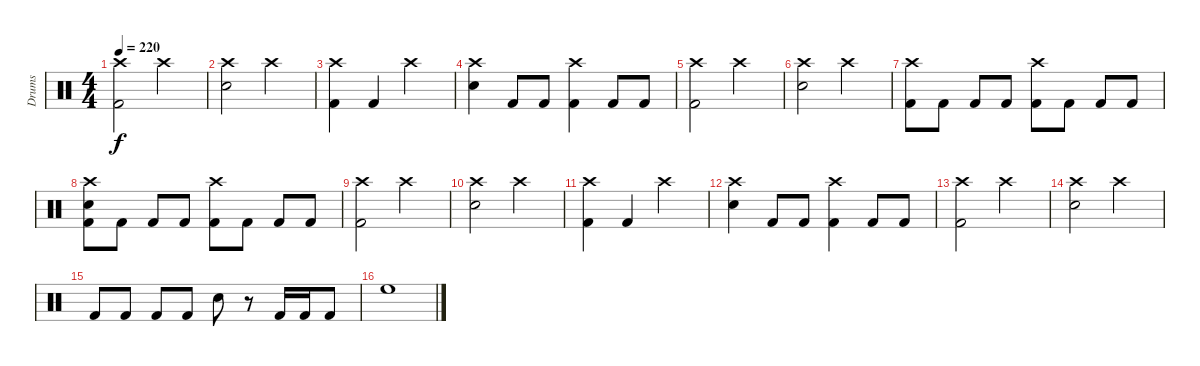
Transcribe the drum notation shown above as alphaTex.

\track ("Drums" "Drums") {instrument percussion}
\staff {score}
\articulation defaults
\ts (4 4)
\tempo 220
\clef neutral
\ks c
("Crash high (hit)" "Kick (hit) 2").2{dy f} "Crash high (hit)".2 |
("Crash high (hit)" "Electric Snare (hit)").2 "Crash high (hit)".2 |
("Crash high (hit)" "Kick (hit) 2").4 "Kick (hit) 2".4 "Crash high (hit)".2 |
("Crash high (hit)" "Electric Snare (hit)").4 "Kick (hit) 2".8 "Kick (hit) 2".8 ("Crash high (hit)" "Kick (hit) 2").4 "Kick (hit) 2".8 "Kick (hit) 2".8 |
("Crash high (hit)" "Kick (hit) 2").2 "Crash high (hit)".2 |
("Crash high (hit)" "Electric Snare (hit)").2 "Crash high (hit)".2 |
("Crash high (hit)" "Kick (hit) 2").8 "Kick (hit) 2".8 "Kick (hit) 2".8 "Kick (hit) 2".8 ("Crash high (hit)" "Kick (hit) 2").8 "Kick (hit) 2".8 "Kick (hit) 2".8 "Kick (hit) 2".8 |
("Crash high (hit)" "Electric Snare (hit)" "Kick (hit) 2").8 "Kick (hit) 2".8 "Kick (hit) 2".8 "Kick (hit) 2".8 ("Crash high (hit)" "Kick (hit) 2").8 "Kick (hit) 2".8 "Kick (hit) 2".8 "Kick (hit) 2".8 |
("Crash high (hit)" "Kick (hit) 2").2 "Crash high (hit)".2 |
("Crash high (hit)" "Electric Snare (hit)").2 "Crash high (hit)".2 |
("Crash high (hit)" "Kick (hit) 2").4 "Kick (hit) 2".4 "Crash high (hit)".2 |
("Crash high (hit)" "Electric Snare (hit)").4 "Kick (hit) 2".8 "Kick (hit) 2".8 ("Crash high (hit)" "Kick (hit) 2").4 "Kick (hit) 2".8 "Kick (hit) 2".8 |
("Crash high (hit)" "Kick (hit) 2").2 "Crash high (hit)".2 |
("Crash high (hit)" "Electric Snare (hit)").2 "Crash high (hit)".2 |
"Kick (hit) 2".8 "Kick (hit) 2".8 "Kick (hit) 2".8 "Kick (hit) 2".8 "Electric Snare (hit)".8 r.8 "Kick (hit) 2".16 "Kick (hit) 2".16 "Kick (hit) 2".8 |
"High Floor Tom (hit)".1
